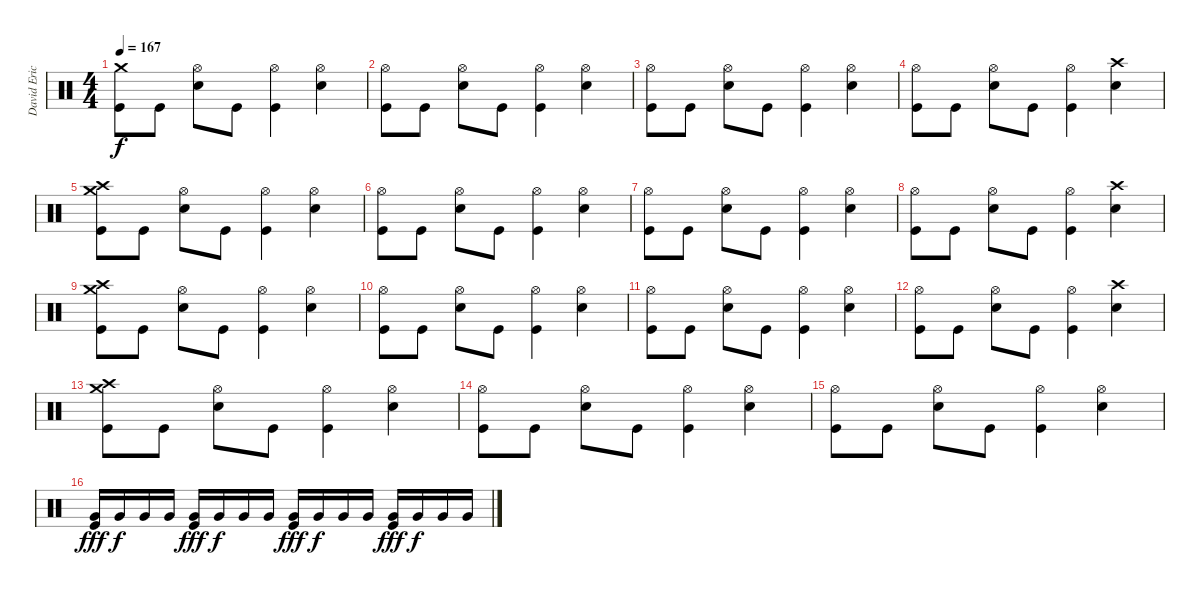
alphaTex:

\track ("David Eric Grohl" "David Eric") {instrument percussion}
\staff {score}
\articulation defaults
\ts (4 4)
\tempo 167
\clef neutral
\ks c
("Crash medium (hit)" "Kick (hit)").8{dy f} "Kick (hit)".8 ("Hi-Hat (open)" "Snare (hit) 2").8 "Kick (hit)".8 ("Hi-Hat (open)" "Kick (hit)").4 ("Hi-Hat (open)" "Snare (hit) 2").4 |
("Hi-Hat (open)" "Kick (hit)").8 "Kick (hit)".8 ("Hi-Hat (open)" "Snare (hit) 2").8 "Kick (hit)".8 ("Hi-Hat (open)" "Kick (hit)").4 ("Hi-Hat (open)" "Snare (hit) 2").4 |
("Hi-Hat (open)" "Kick (hit)").8 "Kick (hit)".8 ("Hi-Hat (open)" "Snare (hit) 2").8 "Kick (hit)".8 ("Hi-Hat (open)" "Kick (hit)").4 ("Hi-Hat (open)" "Snare (hit) 2").4 |
("Hi-Hat (open)" "Kick (hit)").8 "Kick (hit)".8 ("Hi-Hat (open)" "Snare (hit) 2").8 "Kick (hit)".8 ("Hi-Hat (open)" "Kick (hit)").4 ("Crash high (hit)" "Snare (hit) 2").4 |
("Crash high (hit)" "Crash medium (hit)" "Kick (hit)").8 "Kick (hit)".8 ("Hi-Hat (open)" "Snare (hit) 2").8 "Kick (hit)".8 ("Hi-Hat (open)" "Kick (hit)").4 ("Hi-Hat (open)" "Snare (hit) 2").4 |
("Hi-Hat (open)" "Kick (hit)").8 "Kick (hit)".8 ("Hi-Hat (open)" "Snare (hit) 2").8 "Kick (hit)".8 ("Hi-Hat (open)" "Kick (hit)").4 ("Hi-Hat (open)" "Snare (hit) 2").4 |
("Hi-Hat (open)" "Kick (hit)").8 "Kick (hit)".8 ("Hi-Hat (open)" "Snare (hit) 2").8 "Kick (hit)".8 ("Hi-Hat (open)" "Kick (hit)").4 ("Hi-Hat (open)" "Snare (hit) 2").4 |
("Hi-Hat (open)" "Kick (hit)").8 "Kick (hit)".8 ("Hi-Hat (open)" "Snare (hit) 2").8 "Kick (hit)".8 ("Hi-Hat (open)" "Kick (hit)").4 ("Crash high (hit)" "Snare (hit) 2").4 |
("Crash high (hit)" "Crash medium (hit)" "Kick (hit)").8 "Kick (hit)".8 ("Hi-Hat (open)" "Snare (hit) 2").8 "Kick (hit)".8 ("Hi-Hat (open)" "Kick (hit)").4 ("Hi-Hat (open)" "Snare (hit) 2").4 |
("Hi-Hat (open)" "Kick (hit)").8 "Kick (hit)".8 ("Hi-Hat (open)" "Snare (hit) 2").8 "Kick (hit)".8 ("Hi-Hat (open)" "Kick (hit)").4 ("Hi-Hat (open)" "Snare (hit) 2").4 |
("Hi-Hat (open)" "Kick (hit)").8 "Kick (hit)".8 ("Hi-Hat (open)" "Snare (hit) 2").8 "Kick (hit)".8 ("Hi-Hat (open)" "Kick (hit)").4 ("Hi-Hat (open)" "Snare (hit) 2").4 |
("Hi-Hat (open)" "Kick (hit)").8 "Kick (hit)".8 ("Hi-Hat (open)" "Snare (hit) 2").8 "Kick (hit)".8 ("Hi-Hat (open)" "Kick (hit)").4 ("Crash high (hit)" "Snare (hit) 2").4 |
("Crash high (hit)" "Crash medium (hit)" "Kick (hit)").8 "Kick (hit)".8 ("Hi-Hat (open)" "Snare (hit) 2").8 "Kick (hit)".8 ("Hi-Hat (open)" "Kick (hit)").4 ("Hi-Hat (open)" "Snare (hit) 2").4 |
("Hi-Hat (open)" "Kick (hit)").8 "Kick (hit)".8 ("Hi-Hat (open)" "Snare (hit) 2").8 "Kick (hit)".8 ("Hi-Hat (open)" "Kick (hit)").4 ("Hi-Hat (open)" "Snare (hit) 2").4 |
("Hi-Hat (open)" "Kick (hit)").8 "Kick (hit)".8 ("Hi-Hat (open)" "Snare (hit) 2").8 "Kick (hit)".8 ("Hi-Hat (open)" "Kick (hit)").4 ("Hi-Hat (open)" "Snare (hit) 2").4 |
("Very Low Tom (hit)" "Kick (hit)").16{dy fff} "Very Low Tom (hit)".16{dy f} "Very Low Tom (hit)".16 "Very Low Tom (hit)".16 ("Very Low Tom (hit)" "Kick (hit)").16{dy fff} "Very Low Tom (hit)".16{dy f} "Very Low Tom (hit)".16 "Very Low Tom (hit)".16 ("Very Low Tom (hit)" "Kick (hit)").16{dy fff} "Very Low Tom (hit)".16{dy f} "Very Low Tom (hit)".16 "Very Low Tom (hit)".16 ("Very Low Tom (hit)" "Kick (hit)").16{dy fff} "Very Low Tom (hit)".16{dy f} "Very Low Tom (hit)".16 "Very Low Tom (hit)".16
